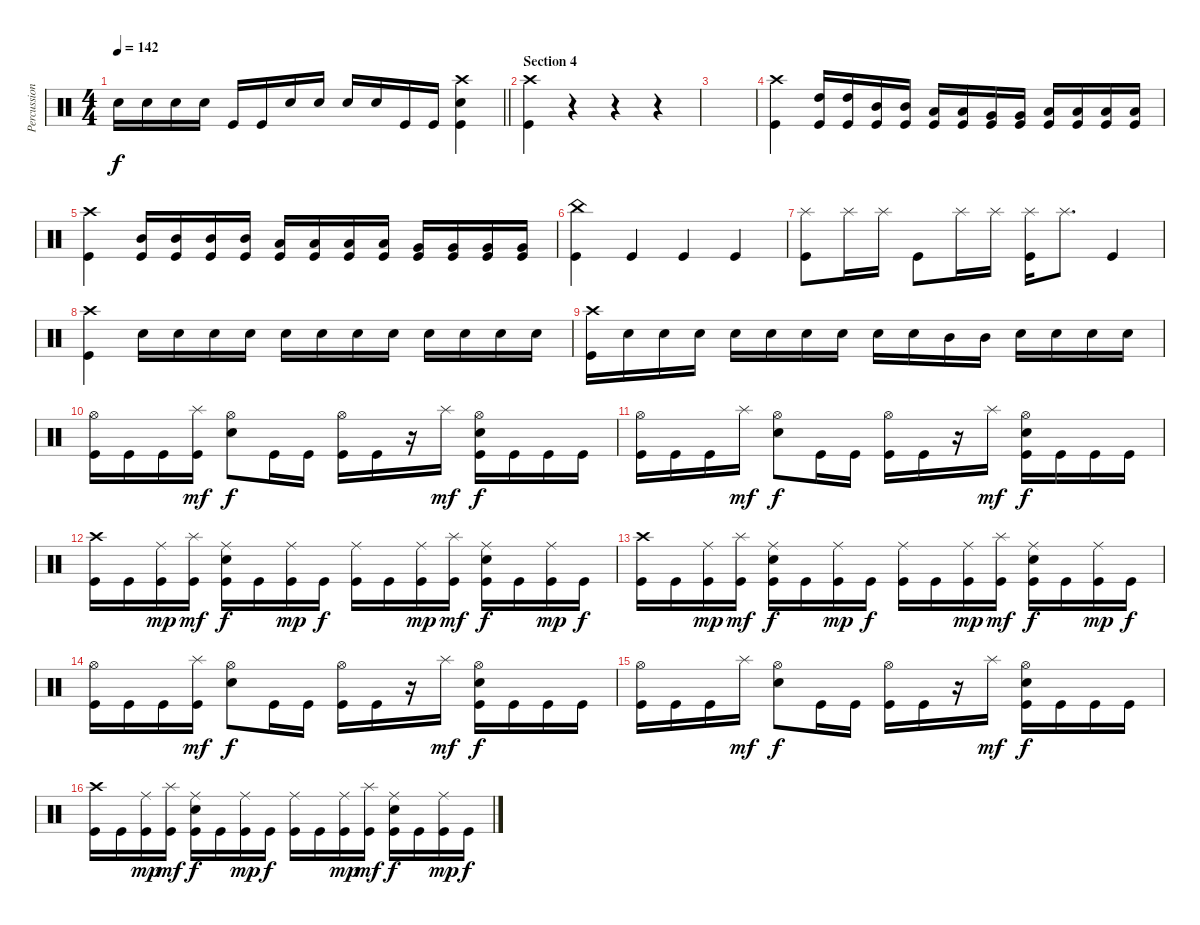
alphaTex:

\track ("Percussion" "Percussion") {instrument percussion}
\staff {score}
\articulation defaults
\ts (4 4)
\tempo 142
\clef neutral
\barLineRight lightlight
\ks c "Snare (hit) 2".16{dy f} "Snare (hit) 2".16 "Snare (hit) 2".16 "Snare (hit) 2".16 "Kick (hit)".16 "Kick (hit)".16 "Snare (hit) 2".16 "Snare (hit) 2".16 "Snare (hit) 2".16 "Snare (hit) 2".16 "Kick (hit)".16 "Kick (hit)".16
("Crash high (hit)" "Kick (hit)" "Snare (hit) 2").4 |
\section ("" "Section 4")
("Crash high (hit)" "Kick (hit)").4 r.4 r.4 r.4 |
|
("Crash high (hit)" "Kick (hit)").4 ("High Tom (hit)" "Kick (hit)").16 ("High Tom (hit)" "Kick (hit)").16 ("Mid Tom (hit)" "Kick (hit)").16 ("Mid Tom (hit)" "Kick (hit)").16 ("Low Tom (hit)" "Kick (hit)").16 ("Low Tom (hit)" "Kick (hit)").16 ("Very Low Tom (hit)" "Kick (hit)").16 ("Very Low Tom (hit)" "Kick (hit)").16 ("Low Floor Tom (hit)" "Kick (hit)").16 ("Low Floor Tom (hit)" "Kick (hit)").16 ("Low Floor Tom (hit)" "Kick (hit)").16 ("Low Floor Tom (hit)" "Kick (hit)").16 |
("Crash high (hit)" "Kick (hit)").4 ("Mid Tom (hit)" "Kick (hit)").16 ("Mid Tom (hit)" "Kick (hit)").16 ("Mid Tom (hit)" "Kick (hit)").16 ("Mid Tom (hit)" "Kick (hit)").16 ("Low Tom (hit)" "Kick (hit)").16 ("Low Tom (hit)" "Kick (hit)").16 ("Low Tom (hit)" "Kick (hit)").16 ("Low Tom (hit)" "Kick (hit)").16 ("Very Low Tom (hit)" "Kick (hit)").16 ("Very Low Tom (hit)" "Kick (hit)").16 ("Very Low Tom (hit)" "Kick (hit)").16 ("Very Low Tom (hit)" "Kick (hit)").16 |
("China (hit)" "Kick (hit)").4 "Kick (hit)".4 "Kick (hit)".4 "Kick (hit)".4 |
("Splash (hit)" "Kick (hit)").8 "Splash (hit)".16 "Splash (hit)".16 "Kick (hit)".8 "Splash (hit)".16 "Splash (hit)".16 ("Splash (hit)" "Kick (hit)").16 "Splash (hit)".8{d} "Kick (hit)".4 |
("Kick (hit)" "Crash high (hit)").4 "Snare (hit) 2".16 "Snare (hit) 2".16 "Snare (hit) 2".16 "Snare (hit) 2".16 "Snare (hit) 2".16 "Snare (hit) 2".16 "Snare (hit) 2".16 "Snare (hit) 2".16 "Snare (hit) 2".16 "Snare (hit) 2".16 "Snare (hit) 2".16 "Snare (hit) 2".16 |
("Crash high (hit)" "Kick (hit)").16 "Snare (hit) 2".16 "Snare (hit) 2".16 "Snare (hit) 2".16 "Snare (hit) 2".16 "Snare (hit) 2".16 "Snare (hit) 2".16 "Snare (hit) 2".16 "Snare (hit) 2".16 "Snare (hit) 2".16 "Mid Tom (hit)".16 "Mid Tom (hit)".16 "Snare (hit) 2".16 "Snare (hit) 2".16 "Snare (hit) 2".16 "Snare (hit) 2".16 |
("Hi-Hat (open)" "Kick (hit)").16 "Kick (hit)".16 "Kick (hit)".16 ("Splash (hit)" "Kick (hit)").16{dy mf} ("Hi-Hat (open)" "Snare (hit) 2").8{dy f} "Kick (hit)".16 "Kick (hit)".16 ("Hi-Hat (open)" "Kick (hit)").16 "Kick (hit)".16 r.16 "Splash (hit)".16{dy mf} ("Snare (hit) 2" "Hi-Hat (open)" "Kick (hit)").16{dy f} "Kick (hit)".16 "Kick (hit)".16 "Kick (hit)".16 |
("Hi-Hat (open)" "Kick (hit)").16 "Kick (hit)".16 "Kick (hit)".16 "Splash (hit)".16{dy mf} ("Hi-Hat (open)" "Snare (hit) 2").8{dy f} "Kick (hit)".16 "Kick (hit)".16 ("Hi-Hat (open)" "Kick (hit)").16 "Kick (hit)".16 r.16 "Splash (hit)".16{dy mf} ("Kick (hit)" "Hi-Hat (open)" "Snare (hit) 2").16{dy f} "Kick (hit)".16 "Kick (hit)".16 "Kick (hit)".16 |
("Crash high (hit)" "Kick (hit)").16 "Kick (hit)".16 ("Ride (middle)" "Kick (hit)").16{dy mp} ("Splash (hit)" "Kick (hit)").16{dy mf} ("Ride (middle)" "Snare (hit) 2" "Kick (hit)").16{dy f} "Kick (hit)".16 ("Ride (middle)" "Kick (hit)").16{dy mp} "Kick (hit)".16{dy f} ("Ride (middle)" "Kick (hit)").16 "Kick (hit)".16 ("Ride (middle)" "Kick (hit)").16{dy mp} ("Splash (hit)" "Kick (hit)").16{dy mf} ("Ride (middle)" "Snare (hit) 2" "Kick (hit)").16{dy f} "Kick (hit)".16 ("Ride (middle)" "Kick (hit)").16{dy mp} "Kick (hit)".16{dy f} |
("Crash high (hit)" "Kick (hit)").16 "Kick (hit)".16 ("Ride (middle)" "Kick (hit)").16{dy mp} ("Splash (hit)" "Kick (hit)").16{dy mf} ("Ride (middle)" "Snare (hit) 2" "Kick (hit)").16{dy f} "Kick (hit)".16 ("Ride (middle)" "Kick (hit)").16{dy mp} "Kick (hit)".16{dy f} ("Ride (middle)" "Kick (hit)").16 "Kick (hit)".16 ("Ride (middle)" "Kick (hit)").16{dy mp} ("Splash (hit)" "Kick (hit)").16{dy mf} ("Ride (middle)" "Snare (hit) 2" "Kick (hit)").16{dy f} "Kick (hit)".16 ("Ride (middle)" "Kick (hit)").16{dy mp} "Kick (hit)".16{dy f} |
("Hi-Hat (open)" "Kick (hit)").16 "Kick (hit)".16 "Kick (hit)".16 ("Splash (hit)" "Kick (hit)").16{dy mf} ("Hi-Hat (open)" "Snare (hit) 2").8{dy f} "Kick (hit)".16 "Kick (hit)".16 ("Hi-Hat (open)" "Kick (hit)").16 "Kick (hit)".16 r.16 "Splash (hit)".16{dy mf} ("Snare (hit) 2" "Hi-Hat (open)" "Kick (hit)").16{dy f} "Kick (hit)".16 "Kick (hit)".16 "Kick (hit)".16 |
("Hi-Hat (open)" "Kick (hit)").16 "Kick (hit)".16 "Kick (hit)".16 "Splash (hit)".16{dy mf} ("Hi-Hat (open)" "Snare (hit) 2").8{dy f} "Kick (hit)".16 "Kick (hit)".16 ("Hi-Hat (open)" "Kick (hit)").16 "Kick (hit)".16 r.16 "Splash (hit)".16{dy mf} ("Kick (hit)" "Hi-Hat (open)" "Snare (hit) 2").16{dy f} "Kick (hit)".16 "Kick (hit)".16 "Kick (hit)".16 |
("Crash high (hit)" "Kick (hit)").16 "Kick (hit)".16 ("Ride (middle)" "Kick (hit)").16{dy mp} ("Splash (hit)" "Kick (hit)").16{dy mf} ("Ride (middle)" "Snare (hit) 2" "Kick (hit)").16{dy f} "Kick (hit)".16 ("Ride (middle)" "Kick (hit)").16{dy mp} "Kick (hit)".16{dy f} ("Ride (middle)" "Kick (hit)").16 "Kick (hit)".16 ("Ride (middle)" "Kick (hit)").16{dy mp} ("Splash (hit)" "Kick (hit)").16{dy mf} ("Ride (middle)" "Snare (hit) 2" "Kick (hit)").16{dy f} "Kick (hit)".16 ("Ride (middle)" "Kick (hit)").16{dy mp} "Kick (hit)".16{dy f}
